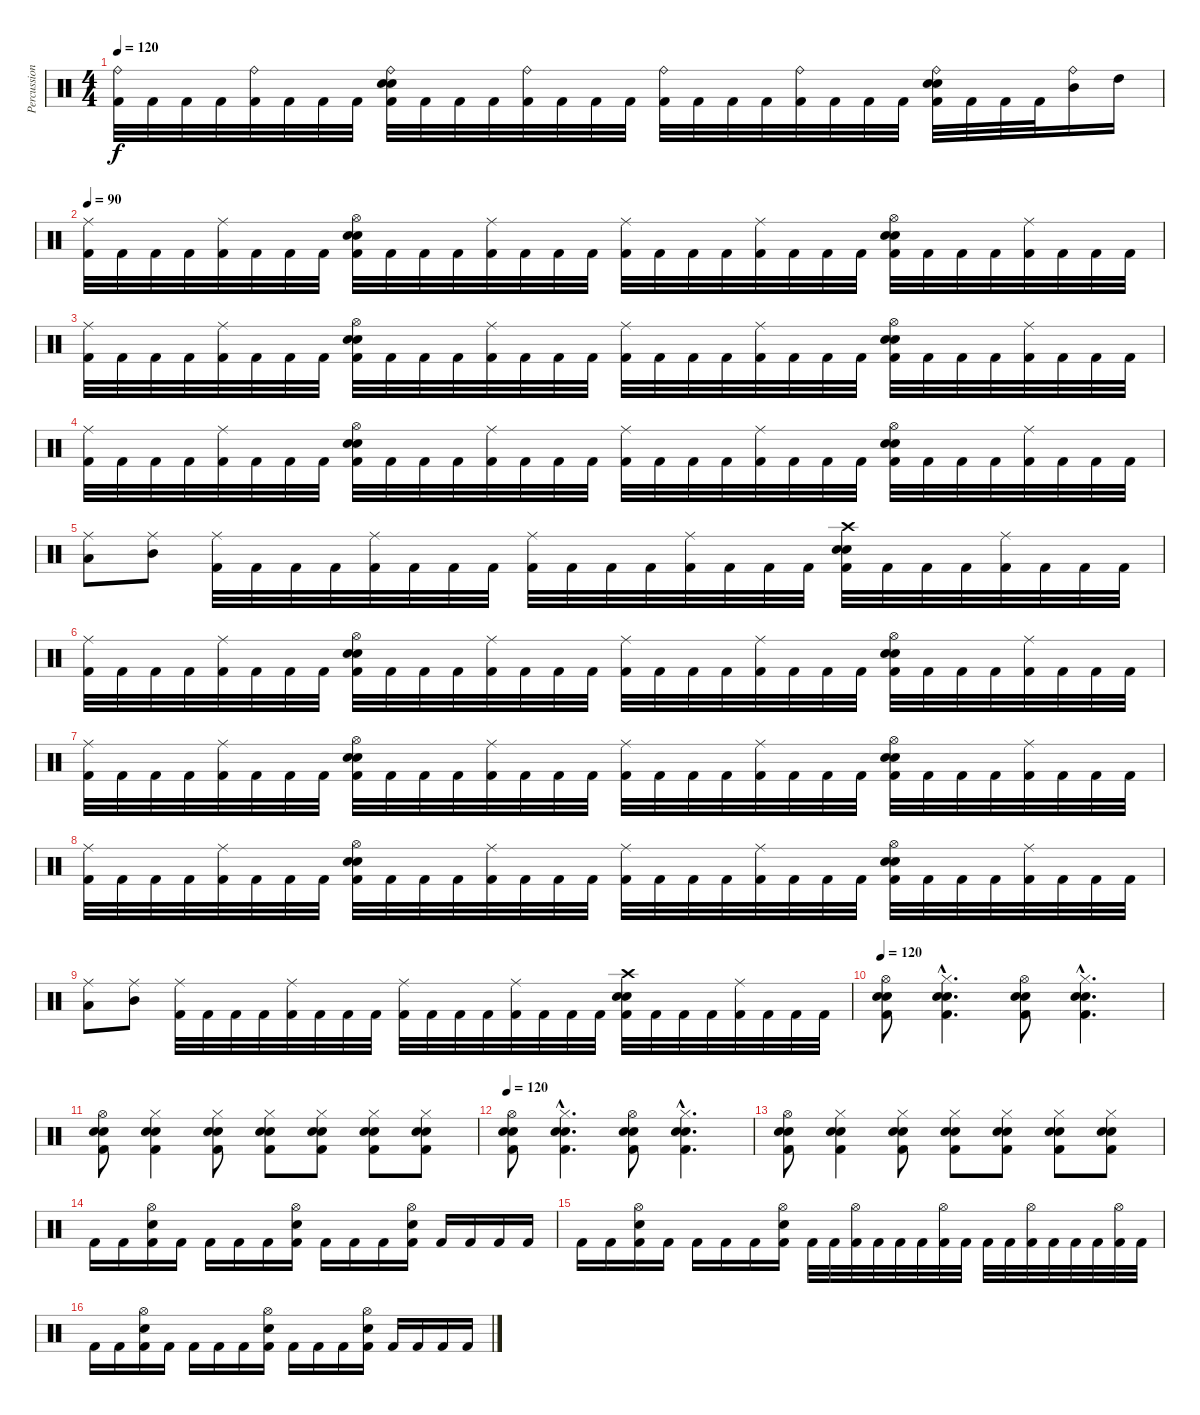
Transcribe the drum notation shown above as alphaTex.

\track ("Percussion" "Percussion") {instrument percussion}
\staff {score}
\articulation defaults
\ts (4 4)
\tempo 120
\clef neutral
\ks c
("Ride (bell)" "Kick (hit) 2").32{dy f} "Kick (hit) 2".32 "Kick (hit) 2".32 "Kick (hit) 2".32 ("Ride (bell)" "Kick (hit) 2").32 "Kick (hit) 2".32 "Kick (hit) 2".32 "Kick (hit) 2".32 ("Ride (bell)" "Electric Snare (hit)" "Snare (hit) 2" "Kick (hit) 2").32 "Kick (hit) 2".32 "Kick (hit) 2".32 "Kick (hit) 2".32 ("Ride (bell)" "Kick (hit) 2").32 "Kick (hit) 2".32 "Kick (hit) 2".32 "Kick (hit) 2".32 ("Ride (bell)" "Kick (hit) 2").32 "Kick (hit) 2".32 "Kick (hit) 2".32 "Kick (hit) 2".32 ("Ride (bell)" "Kick (hit) 2").32 "Kick (hit) 2".32 "Kick (hit) 2".32 "Kick (hit) 2".32 ("Ride (bell)" "Electric Snare (hit)" "Snare (hit) 2" "Kick (hit) 2").32 "Kick (hit) 2".32 "Kick (hit) 2".32 "Kick (hit) 2".32 ("Ride (bell)" "Mid Tom (hit)").16 "High Tom (hit)".16 |
\tempo 90
("Ride (middle)" "Kick (hit) 2").32 "Kick (hit) 2".32 "Kick (hit) 2".32 "Kick (hit) 2".32 ("Ride (middle)" "Kick (hit) 2").32 "Kick (hit) 2".32 "Kick (hit) 2".32 "Kick (hit) 2".32 ("Hi-Hat (open)" "Electric Snare (hit)" "Snare (hit) 2" "Kick (hit) 2").32 "Kick (hit) 2".32 "Kick (hit) 2".32 "Kick (hit) 2".32 ("Ride (middle)" "Kick (hit) 2").32 "Kick (hit) 2".32 "Kick (hit) 2".32 "Kick (hit) 2".32 ("Ride (middle)" "Kick (hit) 2").32 "Kick (hit) 2".32 "Kick (hit) 2".32 "Kick (hit) 2".32 ("Ride (middle)" "Kick (hit) 2").32 "Kick (hit) 2".32 "Kick (hit) 2".32 "Kick (hit) 2".32 ("Hi-Hat (open)" "Electric Snare (hit)" "Snare (hit) 2" "Kick (hit) 2").32 "Kick (hit) 2".32 "Kick (hit) 2".32 "Kick (hit) 2".32 ("Ride (middle)" "Kick (hit) 2").32 "Kick (hit) 2".32 "Kick (hit) 2".32 "Kick (hit) 2".32 |
("Ride (middle)" "Kick (hit) 2").32 "Kick (hit) 2".32 "Kick (hit) 2".32 "Kick (hit) 2".32 ("Ride (middle)" "Kick (hit) 2").32 "Kick (hit) 2".32 "Kick (hit) 2".32 "Kick (hit) 2".32 ("Hi-Hat (open)" "Snare (hit) 2" "Electric Snare (hit)" "Kick (hit) 2").32 "Kick (hit) 2".32 "Kick (hit) 2".32 "Kick (hit) 2".32 ("Ride (middle)" "Kick (hit) 2").32 "Kick (hit) 2".32 "Kick (hit) 2".32 "Kick (hit) 2".32 ("Ride (middle)" "Kick (hit) 2").32 "Kick (hit) 2".32 "Kick (hit) 2".32 "Kick (hit) 2".32 ("Ride (middle)" "Kick (hit) 2").32 "Kick (hit) 2".32 "Kick (hit) 2".32 "Kick (hit) 2".32 ("Hi-Hat (open)" "Snare (hit) 2" "Electric Snare (hit)" "Kick (hit) 2").32 "Kick (hit) 2".32 "Kick (hit) 2".32 "Kick (hit) 2".32 ("Ride (middle)" "Kick (hit) 2").32 "Kick (hit) 2".32 "Kick (hit) 2".32 "Kick (hit) 2".32 |
("Ride (middle)" "Kick (hit) 2").32 "Kick (hit) 2".32 "Kick (hit) 2".32 "Kick (hit) 2".32 ("Ride (middle)" "Kick (hit) 2").32 "Kick (hit) 2".32 "Kick (hit) 2".32 "Kick (hit) 2".32 ("Hi-Hat (open)" "Electric Snare (hit)" "Snare (hit) 2" "Kick (hit) 2").32 "Kick (hit) 2".32 "Kick (hit) 2".32 "Kick (hit) 2".32 ("Ride (middle)" "Kick (hit) 2").32 "Kick (hit) 2".32 "Kick (hit) 2".32 "Kick (hit) 2".32 ("Ride (middle)" "Kick (hit) 2").32 "Kick (hit) 2".32 "Kick (hit) 2".32 "Kick (hit) 2".32 ("Ride (middle)" "Kick (hit) 2").32 "Kick (hit) 2".32 "Kick (hit) 2".32 "Kick (hit) 2".32 ("Hi-Hat (open)" "Electric Snare (hit)" "Snare (hit) 2" "Kick (hit) 2").32 "Kick (hit) 2".32 "Kick (hit) 2".32 "Kick (hit) 2".32 ("Ride (middle)" "Kick (hit) 2").32 "Kick (hit) 2".32 "Kick (hit) 2".32 "Kick (hit) 2".32 |
("Ride (middle)" "Low Tom (hit)").8 ("Ride (middle)" "Mid Tom (hit)").8 ("Ride (middle)" "Kick (hit) 2").32 "Kick (hit) 2".32 "Kick (hit) 2".32 "Kick (hit) 2".32 ("Ride (middle)" "Kick (hit) 2").32 "Kick (hit) 2".32 "Kick (hit) 2".32 "Kick (hit) 2".32 ("Ride (middle)" "Kick (hit) 2").32 "Kick (hit) 2".32 "Kick (hit) 2".32 "Kick (hit) 2".32 ("Ride (middle)" "Kick (hit) 2").32 "Kick (hit) 2".32 "Kick (hit) 2".32 "Kick (hit) 2".32 ("Crash high (hit)" "Snare (hit) 2" "Electric Snare (hit)" "Kick (hit) 2").32 "Kick (hit) 2".32 "Kick (hit) 2".32 "Kick (hit) 2".32 ("Ride (middle)" "Kick (hit) 2").32 "Kick (hit) 2".32 "Kick (hit) 2".32 "Kick (hit) 2".32 |
("Ride (middle)" "Kick (hit) 2").32 "Kick (hit) 2".32 "Kick (hit) 2".32 "Kick (hit) 2".32 ("Ride (middle)" "Kick (hit) 2").32 "Kick (hit) 2".32 "Kick (hit) 2".32 "Kick (hit) 2".32 ("Hi-Hat (open)" "Electric Snare (hit)" "Snare (hit) 2" "Kick (hit) 2").32 "Kick (hit) 2".32 "Kick (hit) 2".32 "Kick (hit) 2".32 ("Ride (middle)" "Kick (hit) 2").32 "Kick (hit) 2".32 "Kick (hit) 2".32 "Kick (hit) 2".32 ("Ride (middle)" "Kick (hit) 2").32 "Kick (hit) 2".32 "Kick (hit) 2".32 "Kick (hit) 2".32 ("Ride (middle)" "Kick (hit) 2").32 "Kick (hit) 2".32 "Kick (hit) 2".32 "Kick (hit) 2".32 ("Hi-Hat (open)" "Electric Snare (hit)" "Snare (hit) 2" "Kick (hit) 2").32 "Kick (hit) 2".32 "Kick (hit) 2".32 "Kick (hit) 2".32 ("Ride (middle)" "Kick (hit) 2").32 "Kick (hit) 2".32 "Kick (hit) 2".32 "Kick (hit) 2".32 |
("Ride (middle)" "Kick (hit) 2").32 "Kick (hit) 2".32 "Kick (hit) 2".32 "Kick (hit) 2".32 ("Ride (middle)" "Kick (hit) 2").32 "Kick (hit) 2".32 "Kick (hit) 2".32 "Kick (hit) 2".32 ("Hi-Hat (open)" "Snare (hit) 2" "Electric Snare (hit)" "Kick (hit) 2").32 "Kick (hit) 2".32 "Kick (hit) 2".32 "Kick (hit) 2".32 ("Ride (middle)" "Kick (hit) 2").32 "Kick (hit) 2".32 "Kick (hit) 2".32 "Kick (hit) 2".32 ("Ride (middle)" "Kick (hit) 2").32 "Kick (hit) 2".32 "Kick (hit) 2".32 "Kick (hit) 2".32 ("Ride (middle)" "Kick (hit) 2").32 "Kick (hit) 2".32 "Kick (hit) 2".32 "Kick (hit) 2".32 ("Hi-Hat (open)" "Snare (hit) 2" "Electric Snare (hit)" "Kick (hit) 2").32 "Kick (hit) 2".32 "Kick (hit) 2".32 "Kick (hit) 2".32 ("Ride (middle)" "Kick (hit) 2").32 "Kick (hit) 2".32 "Kick (hit) 2".32 "Kick (hit) 2".32 |
("Ride (middle)" "Kick (hit) 2").32 "Kick (hit) 2".32 "Kick (hit) 2".32 "Kick (hit) 2".32 ("Ride (middle)" "Kick (hit) 2").32 "Kick (hit) 2".32 "Kick (hit) 2".32 "Kick (hit) 2".32 ("Hi-Hat (open)" "Electric Snare (hit)" "Snare (hit) 2" "Kick (hit) 2").32 "Kick (hit) 2".32 "Kick (hit) 2".32 "Kick (hit) 2".32 ("Ride (middle)" "Kick (hit) 2").32 "Kick (hit) 2".32 "Kick (hit) 2".32 "Kick (hit) 2".32 ("Ride (middle)" "Kick (hit) 2").32 "Kick (hit) 2".32 "Kick (hit) 2".32 "Kick (hit) 2".32 ("Ride (middle)" "Kick (hit) 2").32 "Kick (hit) 2".32 "Kick (hit) 2".32 "Kick (hit) 2".32 ("Hi-Hat (open)" "Electric Snare (hit)" "Snare (hit) 2" "Kick (hit) 2").32 "Kick (hit) 2".32 "Kick (hit) 2".32 "Kick (hit) 2".32 ("Ride (middle)" "Kick (hit) 2").32 "Kick (hit) 2".32 "Kick (hit) 2".32 "Kick (hit) 2".32 |
("Ride (middle)" "Low Tom (hit)").8 ("Ride (middle)" "Mid Tom (hit)").8 ("Ride (middle)" "Kick (hit) 2").32 "Kick (hit) 2".32 "Kick (hit) 2".32 "Kick (hit) 2".32 ("Ride (middle)" "Kick (hit) 2").32 "Kick (hit) 2".32 "Kick (hit) 2".32 "Kick (hit) 2".32 ("Ride (middle)" "Kick (hit) 2").32 "Kick (hit) 2".32 "Kick (hit) 2".32 "Kick (hit) 2".32 ("Ride (middle)" "Kick (hit) 2").32 "Kick (hit) 2".32 "Kick (hit) 2".32 "Kick (hit) 2".32 ("Crash high (hit)" "Snare (hit) 2" "Electric Snare (hit)" "Kick (hit) 2").32 "Kick (hit) 2".32 "Kick (hit) 2".32 "Kick (hit) 2".32 ("Ride (middle)" "Kick (hit) 2").32 "Kick (hit) 2".32 "Kick (hit) 2".32 "Kick (hit) 2".32 |
\tempo 120
("Hi-Hat (open)" "Electric Snare (hit)" "Snare (hit) 2" "Kick (hit) 2").8 ("Hi-Hat (closed)"{hac} "Electric Snare (hit)"{hac} "Snare (hit) 2"{hac} "Kick (hit) 2"{hac}).4{d} ("Hi-Hat (open)" "Electric Snare (hit)" "Snare (hit) 2" "Kick (hit) 2").8 ("Hi-Hat (closed)"{hac} "Electric Snare (hit)"{hac} "Snare (hit) 2"{hac} "Kick (hit) 2"{hac}).4{d} |
("Hi-Hat (open)" "Electric Snare (hit)" "Snare (hit) 2" "Kick (hit) 2").8 ("Hi-Hat (closed)" "Electric Snare (hit)" "Snare (hit) 2" "Kick (hit) 2").4 ("Hi-Hat (closed)" "Electric Snare (hit)" "Snare (hit) 2" "Kick (hit) 2").8 ("Hi-Hat (closed)" "Electric Snare (hit)" "Snare (hit) 2" "Kick (hit) 2").8 ("Hi-Hat (closed)" "Electric Snare (hit)" "Snare (hit) 2" "Kick (hit) 2").8 ("Hi-Hat (closed)" "Electric Snare (hit)" "Snare (hit) 2" "Kick (hit) 2").8 ("Hi-Hat (closed)" "Electric Snare (hit)" "Snare (hit) 2" "Kick (hit) 2").8 |
\tempo 120
("Hi-Hat (open)" "Electric Snare (hit)" "Snare (hit) 2" "Kick (hit) 2").8 ("Hi-Hat (closed)"{hac} "Electric Snare (hit)"{hac} "Snare (hit) 2"{hac} "Kick (hit) 2"{hac}).4{d} ("Hi-Hat (open)" "Electric Snare (hit)" "Snare (hit) 2" "Kick (hit) 2").8 ("Hi-Hat (closed)"{hac} "Electric Snare (hit)"{hac} "Snare (hit) 2"{hac} "Kick (hit) 2"{hac}).4{d} |
("Hi-Hat (open)" "Electric Snare (hit)" "Snare (hit) 2" "Kick (hit) 2").8 ("Hi-Hat (closed)" "Electric Snare (hit)" "Snare (hit) 2" "Kick (hit) 2").4 ("Hi-Hat (closed)" "Electric Snare (hit)" "Snare (hit) 2" "Kick (hit) 2").8 ("Hi-Hat (closed)" "Electric Snare (hit)" "Snare (hit) 2" "Kick (hit) 2").8 ("Hi-Hat (closed)" "Electric Snare (hit)" "Snare (hit) 2" "Kick (hit) 2").8 ("Hi-Hat (closed)" "Electric Snare (hit)" "Snare (hit) 2" "Kick (hit) 2").8 ("Hi-Hat (closed)" "Electric Snare (hit)" "Snare (hit) 2" "Kick (hit) 2").8 |
"Kick (hit) 2".16 "Kick (hit) 2".16 ("Hi-Hat (open)" "Electric Snare (hit)" "Kick (hit) 2").16 "Kick (hit) 2".16 "Kick (hit) 2".16 "Kick (hit) 2".16 "Kick (hit) 2".16 ("Hi-Hat (open)" "Electric Snare (hit)" "Kick (hit) 2").16 "Kick (hit) 2".16 "Kick (hit) 2".16 "Kick (hit) 2".16 ("Hi-Hat (open)" "Electric Snare (hit)" "Kick (hit) 2").16 "Kick (hit) 2".16 "Kick (hit) 2".16 "Kick (hit) 2".16 "Kick (hit) 2".16 |
"Kick (hit) 2".16 "Kick (hit) 2".16 ("Hi-Hat (open)" "Electric Snare (hit)" "Kick (hit) 2").16 "Kick (hit) 2".16 "Kick (hit) 2".16 "Kick (hit) 2".16 "Kick (hit) 2".16 ("Hi-Hat (open)" "Electric Snare (hit)" "Kick (hit) 2").16 "Kick (hit) 2".32 "Kick (hit) 2".32 ("Hi-Hat (open)" "Kick (hit) 2").32 "Kick (hit) 2".32 "Kick (hit) 2".32 "Kick (hit) 2".32 ("Hi-Hat (open)" "Kick (hit) 2").32 "Kick (hit) 2".32 "Kick (hit) 2".32 "Kick (hit) 2".32 ("Hi-Hat (open)" "Kick (hit) 2").32 "Kick (hit) 2".32 "Kick (hit) 2".32 "Kick (hit) 2".32 ("Hi-Hat (open)" "Kick (hit) 2").32 "Kick (hit) 2".32 |
"Kick (hit) 2".16 "Kick (hit) 2".16 ("Hi-Hat (open)" "Electric Snare (hit)" "Kick (hit) 2").16 "Kick (hit) 2".16 "Kick (hit) 2".16 "Kick (hit) 2".16 "Kick (hit) 2".16 ("Hi-Hat (open)" "Electric Snare (hit)" "Kick (hit) 2").16 "Kick (hit) 2".16 "Kick (hit) 2".16 "Kick (hit) 2".16 ("Hi-Hat (open)" "Electric Snare (hit)" "Kick (hit) 2").16 "Kick (hit) 2".16 "Kick (hit) 2".16 "Kick (hit) 2".16 "Kick (hit) 2".16
